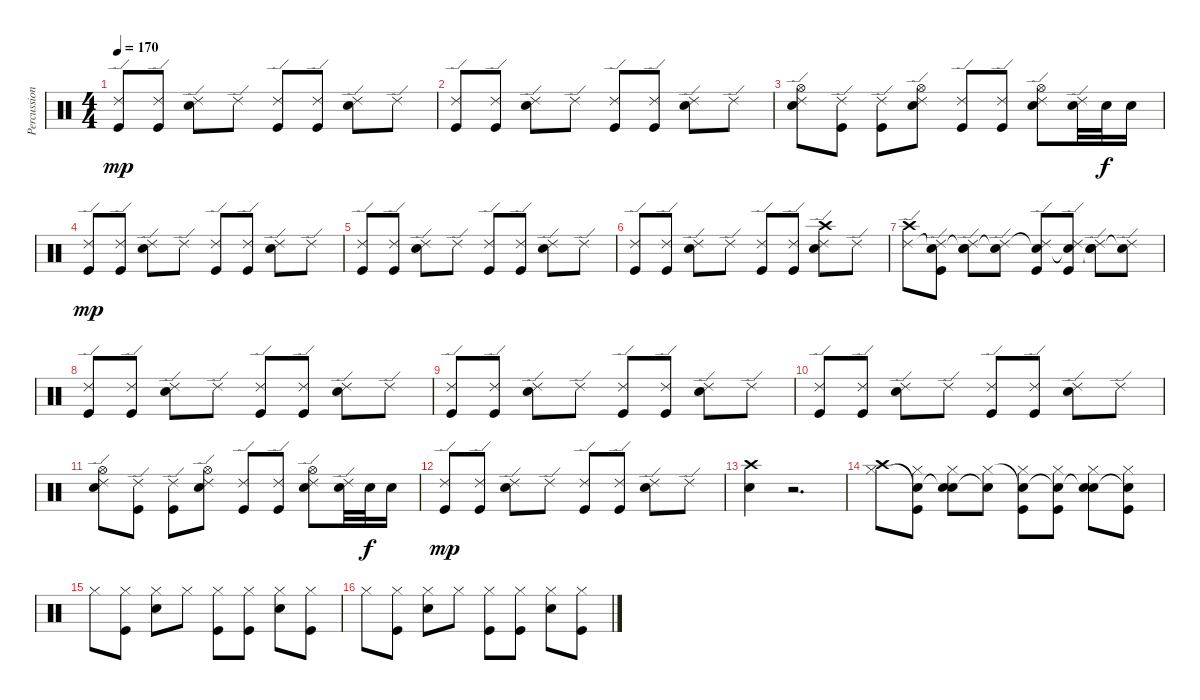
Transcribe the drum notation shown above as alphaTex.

\track ("Percussion" "Percussion") {instrument percussion}
\staff {score}
\articulation defaults
\ts (4 4)
\tempo 170
\clef neutral
\ks c
("Kick (hit)" "Ride (edge) 2").8{dy mp} ("Kick (hit)" "Ride (edge) 2").8 ("Electric Snare (hit)" "Ride (edge) 2").8 "Ride (edge) 2".8 ("Kick (hit)" "Ride (edge) 2").8 ("Kick (hit)" "Ride (edge) 2").8 ("Electric Snare (hit)" "Ride (edge) 2").8 "Ride (edge) 2".8 |
("Kick (hit)" "Ride (edge) 2").8 ("Kick (hit)" "Ride (edge) 2").8 ("Electric Snare (hit)" "Ride (edge) 2").8 "Ride (edge) 2".8 ("Kick (hit)" "Ride (edge) 2").8 ("Kick (hit)" "Ride (edge) 2").8 ("Electric Snare (hit)" "Ride (edge) 2").8 "Ride (edge) 2".8 |
("Hi-Hat (open)" "Electric Snare (hit)" "Ride (edge) 2").8 ("Kick (hit)" "Ride (edge) 2").8 ("Kick (hit)" "Ride (edge) 2").8 ("Hi-Hat (open)" "Electric Snare (hit)" "Ride (edge) 2").8 ("Kick (hit)" "Ride (edge) 2").8 ("Kick (hit)" "Ride (edge) 2").8 ("Hi-Hat (open)" "Electric Snare (hit)" "Ride (edge) 2").8 ("Electric Snare (hit)" "Ride (edge) 2").32 "Electric Snare (hit)".32{dy f} "Electric Snare (hit)".16 |
("Kick (hit)" "Ride (edge) 2").8{dy mp} ("Kick (hit)" "Ride (edge) 2").8 ("Electric Snare (hit)" "Ride (edge) 2").8 "Ride (edge) 2".8 ("Kick (hit)" "Ride (edge) 2").8 ("Kick (hit)" "Ride (edge) 2").8 ("Electric Snare (hit)" "Ride (edge) 2").8 "Ride (edge) 2".8 |
("Kick (hit)" "Ride (edge) 2").8 ("Kick (hit)" "Ride (edge) 2").8 ("Electric Snare (hit)" "Ride (edge) 2").8 "Ride (edge) 2".8 ("Kick (hit)" "Ride (edge) 2").8 ("Kick (hit)" "Ride (edge) 2").8 ("Electric Snare (hit)" "Ride (edge) 2").8 "Ride (edge) 2".8 |
("Kick (hit)" "Ride (edge) 2").8 ("Kick (hit)" "Ride (edge) 2").8 ("Electric Snare (hit)" "Ride (edge) 2").8 "Ride (edge) 2".8 ("Kick (hit)" "Ride (edge) 2").8 ("Kick (hit)" "Ride (edge) 2").8 ("Electric Snare (hit)" "Crash high (hit)" "Ride (edge) 2").8 "Ride (edge) 2".8 |
("Crash high (hit)" "Ride (edge) 2").8 ("Kick (hit)" "Snare (hit)"{t} "Ride (edge) 2").8 ("Electric Snare (hit)" "Snare (hit)"{t} "Ride (edge) 2").8 ("Snare (hit)"{t} "Ride (edge) 2").8 ("Kick (hit)" "Snare (hit)"{t} "Ride (edge) 2").8 ("Kick (hit)" "Snare (hit)"{t} "Ride (edge) 2").8 ("Electric Snare (hit)" "Snare (hit)"{t} "Ride (edge) 2").8 ("Snare (hit)"{t} "Ride (edge) 2").8 |
("Kick (hit)" "Ride (edge) 2").8 ("Kick (hit)" "Ride (edge) 2").8 ("Electric Snare (hit)" "Ride (edge) 2").8 "Ride (edge) 2".8 ("Kick (hit)" "Ride (edge) 2").8 ("Kick (hit)" "Ride (edge) 2").8 ("Electric Snare (hit)" "Ride (edge) 2").8 "Ride (edge) 2".8 |
("Kick (hit)" "Ride (edge) 2").8 ("Kick (hit)" "Ride (edge) 2").8 ("Electric Snare (hit)" "Ride (edge) 2").8 "Ride (edge) 2".8 ("Kick (hit)" "Ride (edge) 2").8 ("Kick (hit)" "Ride (edge) 2").8 ("Electric Snare (hit)" "Ride (edge) 2").8 "Ride (edge) 2".8 |
("Kick (hit)" "Ride (edge) 2").8 ("Kick (hit)" "Ride (edge) 2").8 ("Electric Snare (hit)" "Ride (edge) 2").8 "Ride (edge) 2".8 ("Kick (hit)" "Ride (edge) 2").8 ("Kick (hit)" "Ride (edge) 2").8 ("Electric Snare (hit)" "Ride (edge) 2").8 "Ride (edge) 2".8 |
("Hi-Hat (open)" "Electric Snare (hit)" "Ride (edge) 2").8 ("Kick (hit)" "Ride (edge) 2").8 ("Kick (hit)" "Ride (edge) 2").8 ("Hi-Hat (open)" "Electric Snare (hit)" "Ride (edge) 2").8 ("Kick (hit)" "Ride (edge) 2").8 ("Kick (hit)" "Ride (edge) 2").8 ("Hi-Hat (open)" "Electric Snare (hit)" "Ride (edge) 2").8 ("Electric Snare (hit)" "Ride (edge) 2").32 "Electric Snare (hit)".32{dy f} "Electric Snare (hit)".16 |
("Kick (hit)" "Ride (edge) 2").8{dy mp} ("Kick (hit)" "Ride (edge) 2").8 ("Electric Snare (hit)" "Ride (edge) 2").8 "Ride (edge) 2".8 ("Kick (hit)" "Ride (edge) 2").8 ("Kick (hit)" "Ride (edge) 2").8 ("Electric Snare (hit)" "Ride (edge) 2").8 "Ride (edge) 2".8 |
("Crash high (hit)" "Electric Snare (hit)").4 r.2{d} |
("Crash high (hit)" "Hi-Hat (closed)").8 ("Kick (hit)" "Snare (hit)"{t} "Hi-Hat (closed)").8 ("Electric Snare (hit)" "Snare (hit)"{t} "Hi-Hat (closed)").8 ("Snare (hit)"{t} "Hi-Hat (closed)").8 ("Kick (hit)" "Snare (hit)"{t} "Hi-Hat (closed)").8 ("Kick (hit)" "Snare (hit)"{t} "Hi-Hat (closed)").8 ("Electric Snare (hit)" "Snare (hit)"{t} "Hi-Hat (closed)").8 ("Kick (hit)" "Snare (hit)"{t} "Hi-Hat (closed)").8 |
"Hi-Hat (closed)".8 ("Kick (hit)" "Hi-Hat (closed)").8 ("Electric Snare (hit)" "Hi-Hat (closed)").8 "Hi-Hat (closed)".8 ("Kick (hit)" "Hi-Hat (closed)").8 ("Kick (hit)" "Hi-Hat (closed)").8 ("Electric Snare (hit)" "Hi-Hat (closed)").8 ("Kick (hit)" "Hi-Hat (closed)").8 |
"Hi-Hat (closed)".8 ("Kick (hit)" "Hi-Hat (closed)").8 ("Electric Snare (hit)" "Hi-Hat (closed)").8 "Hi-Hat (closed)".8 ("Kick (hit)" "Hi-Hat (closed)").8 ("Kick (hit)" "Hi-Hat (closed)").8 ("Electric Snare (hit)" "Hi-Hat (closed)").8 ("Kick (hit)" "Hi-Hat (closed)").8
